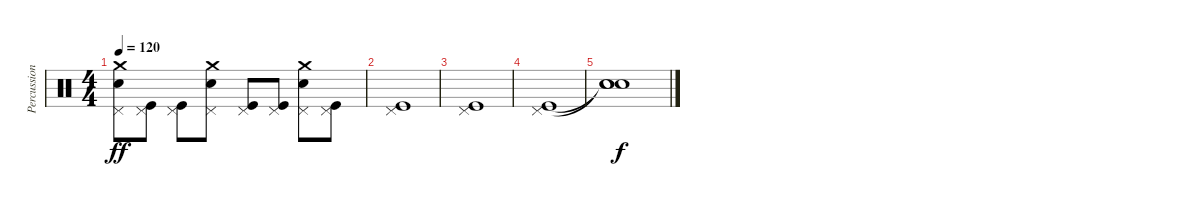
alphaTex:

\track ("Percussions" "Percussion") {instrument percussion}
\staff {score}
\articulation defaults
\ts (4 4)
\tempo 120
\clef neutral
\ks c
("Crash medium (hit)" "Electric Snare (hit)" "Pedal Hi-Hat (hit)").8{dy ff} ("Kick (hit)" "Pedal Hi-Hat (hit)").8 ("Kick (hit)" "Pedal Hi-Hat (hit)").8 ("Crash medium (hit)" "Electric Snare (hit)" "Pedal Hi-Hat (hit)").8 ("Kick (hit)" "Pedal Hi-Hat (hit)").8 ("Kick (hit)" "Pedal Hi-Hat (hit)").8 ("Crash medium (hit)" "Electric Snare (hit)" "Pedal Hi-Hat (hit)").8 ("Kick (hit)" "Pedal Hi-Hat (hit)").8 |
("Kick (hit)" "Pedal Hi-Hat (hit)").1 |
("Kick (hit)" "Pedal Hi-Hat (hit)").1 |
("Kick (hit)" "Pedal Hi-Hat (hit)").1 |
("Snare (hit)"{t} "Snare (hit)"{t} "Snare (hit)").1{dy f}
